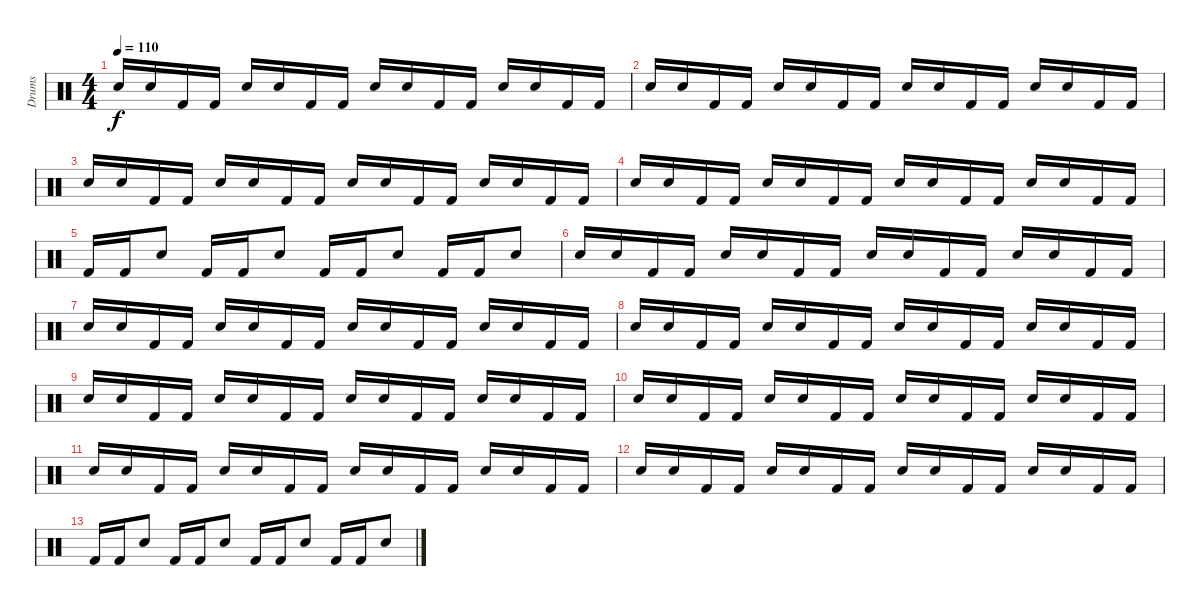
\track ("Drums" "Drums") {instrument percussion}
\staff {score}
\articulation defaults
\ts (4 4)
\tempo 110
\clef neutral
\ks c "Snare (hit) 2".16{dy f} "Snare (hit) 2".16 "Kick (hit) 2".16 "Kick (hit) 2".16 "Snare (hit) 2".16 "Snare (hit) 2".16 "Kick (hit) 2".16 "Kick (hit) 2".16 "Snare (hit) 2".16 "Snare (hit) 2".16 "Kick (hit) 2".16 "Kick (hit) 2".16 "Snare (hit) 2".16 "Snare (hit) 2".16 "Kick (hit) 2".16 "Kick (hit) 2".16
|
"Snare (hit) 2".16 "Snare (hit) 2".16 "Kick (hit) 2".16 "Kick (hit) 2".16 "Snare (hit) 2".16 "Snare (hit) 2".16 "Kick (hit) 2".16 "Kick (hit) 2".16 "Snare (hit) 2".16 "Snare (hit) 2".16 "Kick (hit) 2".16 "Kick (hit) 2".16 "Snare (hit) 2".16 "Snare (hit) 2".16 "Kick (hit) 2".16 "Kick (hit) 2".16 |
"Snare (hit) 2".16 "Snare (hit) 2".16 "Kick (hit) 2".16 "Kick (hit) 2".16 "Snare (hit) 2".16 "Snare (hit) 2".16 "Kick (hit) 2".16 "Kick (hit) 2".16 "Snare (hit) 2".16 "Snare (hit) 2".16 "Kick (hit) 2".16 "Kick (hit) 2".16 "Snare (hit) 2".16 "Snare (hit) 2".16 "Kick (hit) 2".16 "Kick (hit) 2".16 |
"Snare (hit) 2".16 "Snare (hit) 2".16 "Kick (hit) 2".16 "Kick (hit) 2".16 "Snare (hit) 2".16 "Snare (hit) 2".16 "Kick (hit) 2".16 "Kick (hit) 2".16 "Snare (hit) 2".16 "Snare (hit) 2".16 "Kick (hit) 2".16 "Kick (hit) 2".16 "Snare (hit) 2".16 "Snare (hit) 2".16 "Kick (hit) 2".16 "Kick (hit) 2".16 |
"Kick (hit) 2".16 "Kick (hit) 2".16 "Snare (hit) 2".8 "Kick (hit) 2".16 "Kick (hit) 2".16 "Snare (hit) 2".8 "Kick (hit) 2".16 "Kick (hit) 2".16 "Snare (hit) 2".8 "Kick (hit) 2".16 "Kick (hit) 2".16 "Snare (hit) 2".8 |
"Snare (hit) 2".16 "Snare (hit) 2".16 "Kick (hit) 2".16 "Kick (hit) 2".16 "Snare (hit) 2".16 "Snare (hit) 2".16 "Kick (hit) 2".16 "Kick (hit) 2".16 "Snare (hit) 2".16 "Snare (hit) 2".16 "Kick (hit) 2".16 "Kick (hit) 2".16 "Snare (hit) 2".16 "Snare (hit) 2".16 "Kick (hit) 2".16 "Kick (hit) 2".16 |
"Snare (hit) 2".16 "Snare (hit) 2".16 "Kick (hit) 2".16 "Kick (hit) 2".16 "Snare (hit) 2".16 "Snare (hit) 2".16 "Kick (hit) 2".16 "Kick (hit) 2".16 "Snare (hit) 2".16 "Snare (hit) 2".16 "Kick (hit) 2".16 "Kick (hit) 2".16 "Snare (hit) 2".16 "Snare (hit) 2".16 "Kick (hit) 2".16 "Kick (hit) 2".16 |
"Snare (hit) 2".16 "Snare (hit) 2".16 "Kick (hit) 2".16 "Kick (hit) 2".16 "Snare (hit) 2".16 "Snare (hit) 2".16 "Kick (hit) 2".16 "Kick (hit) 2".16 "Snare (hit) 2".16 "Snare (hit) 2".16 "Kick (hit) 2".16 "Kick (hit) 2".16 "Snare (hit) 2".16 "Snare (hit) 2".16 "Kick (hit) 2".16 "Kick (hit) 2".16 |
"Snare (hit) 2".16 "Snare (hit) 2".16 "Kick (hit) 2".16 "Kick (hit) 2".16 "Snare (hit) 2".16 "Snare (hit) 2".16 "Kick (hit) 2".16 "Kick (hit) 2".16 "Snare (hit) 2".16 "Snare (hit) 2".16 "Kick (hit) 2".16 "Kick (hit) 2".16 "Snare (hit) 2".16 "Snare (hit) 2".16 "Kick (hit) 2".16 "Kick (hit) 2".16 |
"Snare (hit) 2".16 "Snare (hit) 2".16 "Kick (hit) 2".16 "Kick (hit) 2".16 "Snare (hit) 2".16 "Snare (hit) 2".16 "Kick (hit) 2".16 "Kick (hit) 2".16 "Snare (hit) 2".16 "Snare (hit) 2".16 "Kick (hit) 2".16 "Kick (hit) 2".16 "Snare (hit) 2".16 "Snare (hit) 2".16 "Kick (hit) 2".16 "Kick (hit) 2".16 |
"Snare (hit) 2".16 "Snare (hit) 2".16 "Kick (hit) 2".16 "Kick (hit) 2".16 "Snare (hit) 2".16 "Snare (hit) 2".16 "Kick (hit) 2".16 "Kick (hit) 2".16 "Snare (hit) 2".16 "Snare (hit) 2".16 "Kick (hit) 2".16 "Kick (hit) 2".16 "Snare (hit) 2".16 "Snare (hit) 2".16 "Kick (hit) 2".16 "Kick (hit) 2".16 |
"Snare (hit) 2".16 "Snare (hit) 2".16 "Kick (hit) 2".16 "Kick (hit) 2".16 "Snare (hit) 2".16 "Snare (hit) 2".16 "Kick (hit) 2".16 "Kick (hit) 2".16 "Snare (hit) 2".16 "Snare (hit) 2".16 "Kick (hit) 2".16 "Kick (hit) 2".16 "Snare (hit) 2".16 "Snare (hit) 2".16 "Kick (hit) 2".16 "Kick (hit) 2".16 |
"Kick (hit) 2".16 "Kick (hit) 2".16 "Snare (hit) 2".8 "Kick (hit) 2".16 "Kick (hit) 2".16 "Snare (hit) 2".8 "Kick (hit) 2".16 "Kick (hit) 2".16 "Snare (hit) 2".8 "Kick (hit) 2".16 "Kick (hit) 2".16 "Snare (hit) 2".8
